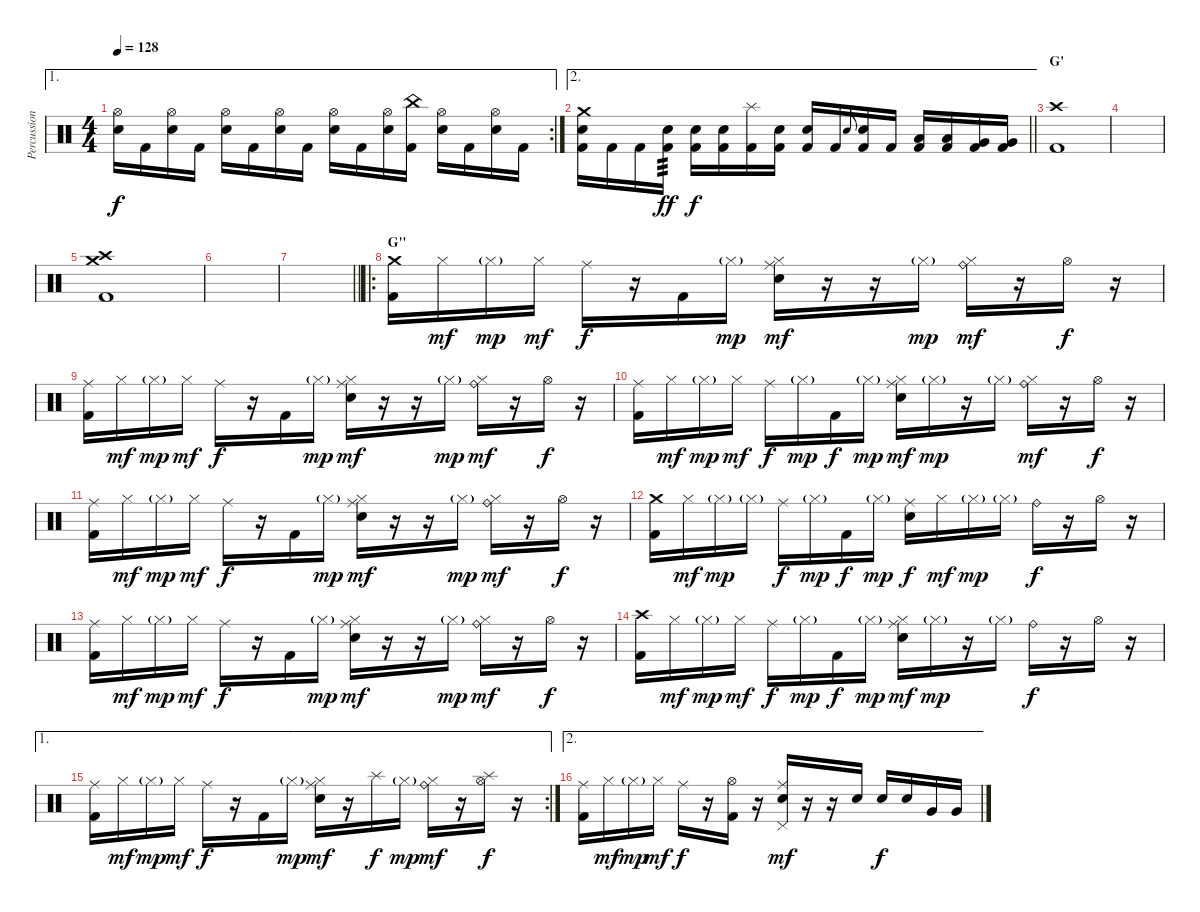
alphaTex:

\track ("Percussion" "Percussion") {instrument percussion}
\staff {score}
\articulation defaults
\ae 1
\rc 2
\ts (4 4)
\tempo 128
\clef neutral
\ks c
("Hi-Hat (open)" "Snare (hit) 2").16{dy f} "Kick (hit) 2".16 ("Hi-Hat (open)" "Snare (hit) 2").16 "Kick (hit) 2".16 ("Hi-Hat (open)" "Snare (hit) 2").16 "Kick (hit) 2".16 ("Hi-Hat (open)" "Snare (hit) 2").16 "Kick (hit) 2".16 ("Hi-Hat (open)" "Snare (hit) 2").16 "Kick (hit) 2".16 ("Hi-Hat (open)" "Snare (hit) 2").16 ("China (hit)" "Kick (hit) 2").16 ("Hi-Hat (open)" "Snare (hit) 2").16 "Kick (hit) 2".16 ("Hi-Hat (open)" "Snare (hit) 2").16 "Kick (hit) 2".16 |
\ae 2
\barLineRight lightlight
("Crash medium (hit)" "Snare (hit) 2" "Kick (hit) 2").16 "Kick (hit) 2".16 "Kick (hit) 2".16 ("Snare (hit) 2" "Kick (hit) 2").16{tp 3 dy ff} ("Snare (hit) 2" "Kick (hit) 2").16{dy f} ("Snare (hit) 2" "Kick (hit) 2").16 ("Splash (hit)" "Kick (hit) 2").16 ("Snare (hit) 2" "Kick (hit) 2").16 ("Snare (hit) 2" "Kick (hit) 2").16 "Kick (hit) 2".16 "Snare (hit) 2".8{gr onbeat} ("Snare (hit) 2" "Kick (hit) 2").16 "Kick (hit) 2".16 ("Low Tom (hit)" "Kick (hit) 2").16 ("Low Tom (hit)" "Kick (hit) 2").16 ("Very Low Tom (hit)" "Kick (hit) 2").16 ("Very Low Tom (hit)" "Kick (hit) 2").16 |
\section ("" "G'")
("Crash high (hit)" "Kick (hit) 2").1 |
|
("Crash high (hit)" "Crash medium (hit)" "Kick (hit) 2").1 |
|
\barLineRight lightlight
|
\ro
\section ("" "G''")
("Crash medium (hit)" "Kick (hit) 2").16 "Hi-Hat (closed)".16{dy mf} "Hi-Hat (closed)"{g}.16{dy mp} "Hi-Hat (closed)".16{dy mf} "Ride (middle)".16{dy f} r.16 "Kick (hit) 2".16 "Hi-Hat (closed)"{g}.16{dy mp} ("Ride (middle)" "Hi-Hat (closed)" "Snare (hit) 2").16{dy mf} r.16 r.16 "Hi-Hat (closed)"{g}.16{dy mp} ("Ride (bell)" "Hi-Hat (closed)").16{dy mf} r.16 "Hi-Hat (open)".16{dy f} r.16 |
("Ride (middle)" "Kick (hit) 2").16 "Hi-Hat (closed)".16{dy mf} "Hi-Hat (closed)"{g}.16{dy mp} "Hi-Hat (closed)".16{dy mf} "Ride (middle)".16{dy f} r.16 "Kick (hit) 2".16 "Hi-Hat (closed)"{g}.16{dy mp} ("Ride (middle)" "Hi-Hat (closed)" "Snare (hit) 2").16{dy mf} r.16 r.16 "Hi-Hat (closed)"{g}.16{dy mp} ("Ride (bell)" "Hi-Hat (closed)").16{dy mf} r.16 "Hi-Hat (open)".16{dy f} r.16 |
("Ride (middle)" "Kick (hit) 2").16 "Hi-Hat (closed)".16{dy mf} "Hi-Hat (closed)"{g}.16{dy mp} "Hi-Hat (closed)".16{dy mf} "Ride (middle)".16{dy f} "Hi-Hat (closed)"{g}.16{dy mp} "Kick (hit) 2".16{dy f} "Hi-Hat (closed)"{g}.16{dy mp} ("Ride (middle)" "Hi-Hat (closed)" "Snare (hit) 2").16{dy mf} "Hi-Hat (closed)"{g}.16{dy mp} r.16 "Hi-Hat (closed)"{g}.16 ("Ride (bell)" "Hi-Hat (closed)").16{dy mf} r.16 "Hi-Hat (open)".16{dy f} r.16 |
("Ride (middle)" "Kick (hit) 2").16 "Hi-Hat (closed)".16{dy mf} "Hi-Hat (closed)"{g}.16{dy mp} "Hi-Hat (closed)".16{dy mf} "Ride (middle)".16{dy f} r.16 "Kick (hit) 2".16 "Hi-Hat (closed)"{g}.16{dy mp} ("Ride (middle)" "Hi-Hat (closed)" "Snare (hit) 2").16{dy mf} r.16 r.16 "Hi-Hat (closed)"{g}.16{dy mp} ("Ride (bell)" "Hi-Hat (closed)").16{dy mf} r.16 "Hi-Hat (open)".16{dy f} r.16 |
("Crash medium (hit)" "Kick (hit) 2").16 "Hi-Hat (closed)".16{dy mf} "Hi-Hat (closed)"{g}.16{dy mp} "Hi-Hat (closed)"{g}.16 "Ride (middle)".16{dy f} "Hi-Hat (closed)"{g}.16{dy mp} "Kick (hit) 2".16{dy f} "Hi-Hat (closed)"{g}.16{dy mp} ("Ride (middle)" "Snare (hit) 2").16{dy f} "Hi-Hat (closed)".16{dy mf} "Hi-Hat (closed)"{g}.16{dy mp} "Hi-Hat (closed)"{g}.16 "Ride (bell)".16{dy f} r.16 "Hi-Hat (open)".16 r.16 |
("Ride (middle)" "Kick (hit) 2").16 "Hi-Hat (closed)".16{dy mf} "Hi-Hat (closed)"{g}.16{dy mp} "Hi-Hat (closed)".16{dy mf} "Ride (middle)".16{dy f} r.16 "Kick (hit) 2".16 "Hi-Hat (closed)"{g}.16{dy mp} ("Ride (middle)" "Hi-Hat (closed)" "Snare (hit) 2").16{dy mf} r.16 r.16 "Hi-Hat (closed)"{g}.16{dy mp} ("Ride (bell)" "Hi-Hat (closed)").16{dy mf} r.16 "Hi-Hat (open)".16{dy f} r.16 |
("Crash high (hit)" "Kick (hit) 2").16 "Hi-Hat (closed)".16{dy mf} "Hi-Hat (closed)"{g}.16{dy mp} "Hi-Hat (closed)".16{dy mf} "Ride (middle)".16{dy f} "Hi-Hat (closed)"{g}.16{dy mp} "Kick (hit) 2".16{dy f} "Hi-Hat (closed)"{g}.16{dy mp} ("Ride (middle)" "Hi-Hat (closed)" "Snare (hit) 2").16{dy mf} "Hi-Hat (closed)"{g}.16{dy mp} r.16 "Hi-Hat (closed)"{g}.16 "Ride (bell)".16{dy f} r.16 "Hi-Hat (open)".16 r.16 |
\ae 1
\rc 2
("Ride (middle)" "Kick (hit) 2").16 "Hi-Hat (closed)".16{dy mf} "Hi-Hat (closed)"{g}.16{dy mp} "Hi-Hat (closed)".16{dy mf} "Ride (middle)".16{dy f} r.16 "Kick (hit) 2".16 "Hi-Hat (closed)"{g}.16{dy mp} ("Ride (middle)" "Hi-Hat (closed)" "Snare (hit) 2").16{dy mf} r.16 "Splash (hit)".16{dy f} "Hi-Hat (closed)"{g}.16{dy mp} ("Ride (bell)" "Hi-Hat (closed)").16{dy mf} r.16 ("Splash (hit)" "Hi-Hat (open)").16{dy f} r.16 |
\ae 2
("Ride (middle)" "Kick (hit) 2").16 "Hi-Hat (closed)".16{dy mf} "Hi-Hat (closed)"{g}.16{dy mp} "Hi-Hat (closed)".16{dy mf} "Ride (middle)".16{dy f} r.16 ("Hi-Hat (open)" "Kick (hit) 2").16 r.16 ("Ride (middle)" "Pedal Hi-Hat (hit)" "Snare (hit) 2").16{dy mf} r.16 r.16 "Snare (hit) 2".16 "Snare (hit) 2".16{dy f} "Snare (hit) 2".16 "Very Low Tom (hit)".16 "Very Low Tom (hit)".16
